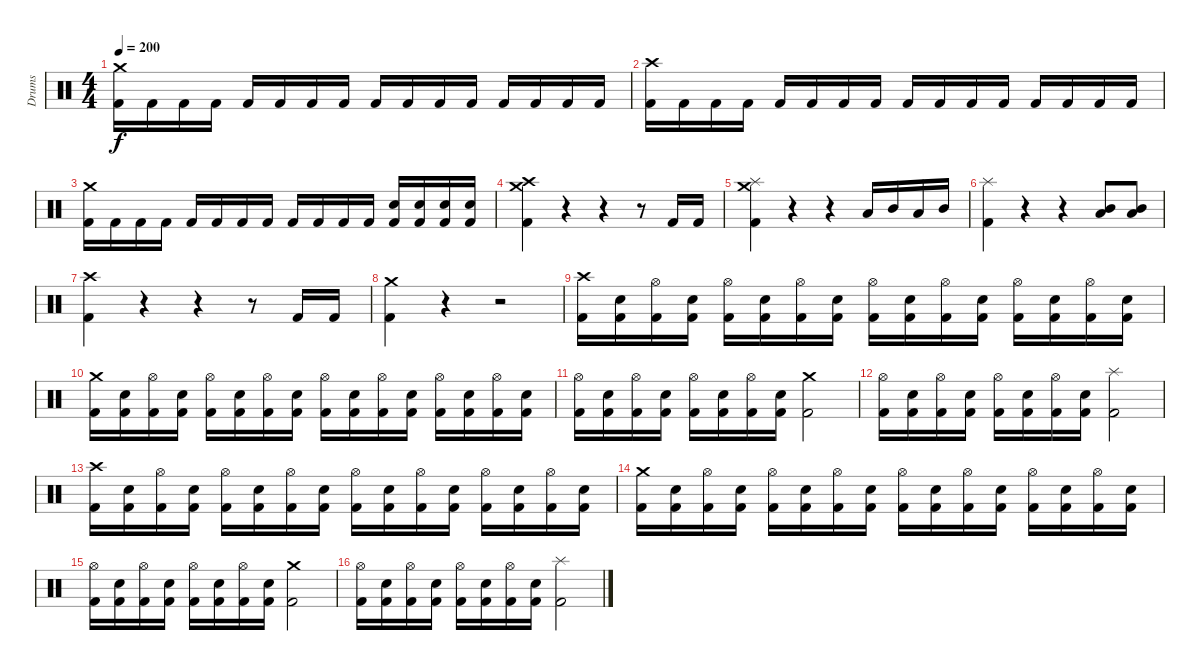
\track ("Drums" "Drums") {instrument percussion}
\staff {score}
\articulation defaults
\ts (4 4)
\tempo 200
\clef neutral
\ks c
("Crash medium (hit)" "Kick (hit) 2").16{dy f} "Kick (hit) 2".16 "Kick (hit) 2".16 "Kick (hit) 2".16 "Kick (hit) 2".16 "Kick (hit) 2".16 "Kick (hit) 2".16 "Kick (hit) 2".16 "Kick (hit) 2".16 "Kick (hit) 2".16 "Kick (hit) 2".16 "Kick (hit) 2".16 "Kick (hit) 2".16 "Kick (hit) 2".16 "Kick (hit) 2".16 "Kick (hit) 2".16 |
("Crash high (hit)" "Kick (hit) 2").16 "Kick (hit) 2".16 "Kick (hit) 2".16 "Kick (hit) 2".16 "Kick (hit) 2".16 "Kick (hit) 2".16 "Kick (hit) 2".16 "Kick (hit) 2".16 "Kick (hit) 2".16 "Kick (hit) 2".16 "Kick (hit) 2".16 "Kick (hit) 2".16 "Kick (hit) 2".16 "Kick (hit) 2".16 "Kick (hit) 2".16 "Kick (hit) 2".16 |
("Crash medium (hit)" "Kick (hit) 2").16 "Kick (hit) 2".16 "Kick (hit) 2".16 "Kick (hit) 2".16 "Kick (hit) 2".16 "Kick (hit) 2".16 "Kick (hit) 2".16 "Kick (hit) 2".16 "Kick (hit) 2".16 "Kick (hit) 2".16 "Kick (hit) 2".16 "Kick (hit) 2".16 ("Snare (hit) 2" "Kick (hit) 2").16 ("Snare (hit) 2" "Kick (hit) 2").16 ("Snare (hit) 2" "Kick (hit) 2").16 ("Snare (hit) 2" "Kick (hit) 2").16 |
("Crash medium (hit)" "Crash high (hit)" "Kick (hit) 2").4 r.4 r.4 r.8 "Kick (hit) 2".16 "Kick (hit) 2".16 |
("Splash (hit)" "Crash medium (hit)" "Kick (hit) 2").4 r.4 r.4 "Low Tom (hit)".16 "Mid Tom (hit)".16 "Low Tom (hit)".16 "Mid Tom (hit)".16 |
("Splash (hit)" "Kick (hit) 2").4 r.4 r.4 ("Mid Tom (hit)" "Low Tom (hit)").8 ("Mid Tom (hit)" "Low Tom (hit)").8 |
("Crash high (hit)" "Kick (hit) 2").4 r.4 r.4 r.8 "Kick (hit) 2".16 "Kick (hit) 2".16 |
("Crash medium (hit)" "Kick (hit) 2").4 r.4 r.2 |
("Crash high (hit)" "Kick (hit) 2").16 ("Snare (hit) 2" "Kick (hit) 2").16 ("Hi-Hat (open)" "Kick (hit) 2").16 ("Snare (hit) 2" "Kick (hit) 2").16 ("Hi-Hat (open)" "Kick (hit) 2").16 ("Snare (hit) 2" "Kick (hit) 2").16 ("Hi-Hat (open)" "Kick (hit) 2").16 ("Snare (hit) 2" "Kick (hit) 2").16 ("Hi-Hat (open)" "Kick (hit) 2").16 ("Snare (hit) 2" "Kick (hit) 2").16 ("Hi-Hat (open)" "Kick (hit) 2").16 ("Snare (hit) 2" "Kick (hit) 2").16 ("Hi-Hat (open)" "Kick (hit) 2").16 ("Snare (hit) 2" "Kick (hit) 2").16 ("Hi-Hat (open)" "Kick (hit) 2").16 ("Snare (hit) 2" "Kick (hit) 2").16 |
("Crash medium (hit)" "Kick (hit) 2").16 ("Snare (hit) 2" "Kick (hit) 2").16 ("Hi-Hat (open)" "Kick (hit) 2").16 ("Snare (hit) 2" "Kick (hit) 2").16 ("Hi-Hat (open)" "Kick (hit) 2").16 ("Snare (hit) 2" "Kick (hit) 2").16 ("Hi-Hat (open)" "Kick (hit) 2").16 ("Snare (hit) 2" "Kick (hit) 2").16 ("Hi-Hat (open)" "Kick (hit) 2").16 ("Snare (hit) 2" "Kick (hit) 2").16 ("Hi-Hat (open)" "Kick (hit) 2").16 ("Snare (hit) 2" "Kick (hit) 2").16 ("Hi-Hat (open)" "Kick (hit) 2").16 ("Snare (hit) 2" "Kick (hit) 2").16 ("Hi-Hat (open)" "Kick (hit) 2").16 ("Snare (hit) 2" "Kick (hit) 2").16 |
("Hi-Hat (open)" "Kick (hit) 2").16 ("Snare (hit) 2" "Kick (hit) 2").16 ("Hi-Hat (open)" "Kick (hit) 2").16 ("Snare (hit) 2" "Kick (hit) 2").16 ("Hi-Hat (open)" "Kick (hit) 2").16 ("Snare (hit) 2" "Kick (hit) 2").16 ("Hi-Hat (open)" "Kick (hit) 2").16 ("Snare (hit) 2" "Kick (hit) 2").16 ("Crash medium (hit)" "Kick (hit) 2").2 |
("Hi-Hat (open)" "Kick (hit) 2").16 ("Snare (hit) 2" "Kick (hit) 2").16 ("Hi-Hat (open)" "Kick (hit) 2").16 ("Snare (hit) 2" "Kick (hit) 2").16 ("Hi-Hat (open)" "Kick (hit) 2").16 ("Snare (hit) 2" "Kick (hit) 2").16 ("Hi-Hat (open)" "Kick (hit) 2").16 ("Snare (hit) 2" "Kick (hit) 2").16 ("Splash (hit)" "Kick (hit) 2").2 |
("Crash high (hit)" "Kick (hit) 2").16 ("Snare (hit) 2" "Kick (hit) 2").16 ("Hi-Hat (open)" "Kick (hit) 2").16 ("Snare (hit) 2" "Kick (hit) 2").16 ("Hi-Hat (open)" "Kick (hit) 2").16 ("Snare (hit) 2" "Kick (hit) 2").16 ("Hi-Hat (open)" "Kick (hit) 2").16 ("Snare (hit) 2" "Kick (hit) 2").16 ("Hi-Hat (open)" "Kick (hit) 2").16 ("Snare (hit) 2" "Kick (hit) 2").16 ("Hi-Hat (open)" "Kick (hit) 2").16 ("Snare (hit) 2" "Kick (hit) 2").16 ("Hi-Hat (open)" "Kick (hit) 2").16 ("Snare (hit) 2" "Kick (hit) 2").16 ("Hi-Hat (open)" "Kick (hit) 2").16 ("Snare (hit) 2" "Kick (hit) 2").16 |
("Crash medium (hit)" "Kick (hit) 2").16 ("Snare (hit) 2" "Kick (hit) 2").16 ("Hi-Hat (open)" "Kick (hit) 2").16 ("Snare (hit) 2" "Kick (hit) 2").16 ("Hi-Hat (open)" "Kick (hit) 2").16 ("Snare (hit) 2" "Kick (hit) 2").16 ("Hi-Hat (open)" "Kick (hit) 2").16 ("Snare (hit) 2" "Kick (hit) 2").16 ("Hi-Hat (open)" "Kick (hit) 2").16 ("Snare (hit) 2" "Kick (hit) 2").16 ("Hi-Hat (open)" "Kick (hit) 2").16 ("Snare (hit) 2" "Kick (hit) 2").16 ("Hi-Hat (open)" "Kick (hit) 2").16 ("Snare (hit) 2" "Kick (hit) 2").16 ("Hi-Hat (open)" "Kick (hit) 2").16 ("Snare (hit) 2" "Kick (hit) 2").16 |
("Hi-Hat (open)" "Kick (hit) 2").16 ("Snare (hit) 2" "Kick (hit) 2").16 ("Hi-Hat (open)" "Kick (hit) 2").16 ("Snare (hit) 2" "Kick (hit) 2").16 ("Hi-Hat (open)" "Kick (hit) 2").16 ("Snare (hit) 2" "Kick (hit) 2").16 ("Hi-Hat (open)" "Kick (hit) 2").16 ("Snare (hit) 2" "Kick (hit) 2").16 ("Crash medium (hit)" "Kick (hit) 2").2 |
("Hi-Hat (open)" "Kick (hit) 2").16 ("Snare (hit) 2" "Kick (hit) 2").16 ("Hi-Hat (open)" "Kick (hit) 2").16 ("Snare (hit) 2" "Kick (hit) 2").16 ("Hi-Hat (open)" "Kick (hit) 2").16 ("Snare (hit) 2" "Kick (hit) 2").16 ("Hi-Hat (open)" "Kick (hit) 2").16 ("Snare (hit) 2" "Kick (hit) 2").16 ("Splash (hit)" "Kick (hit) 2").2
